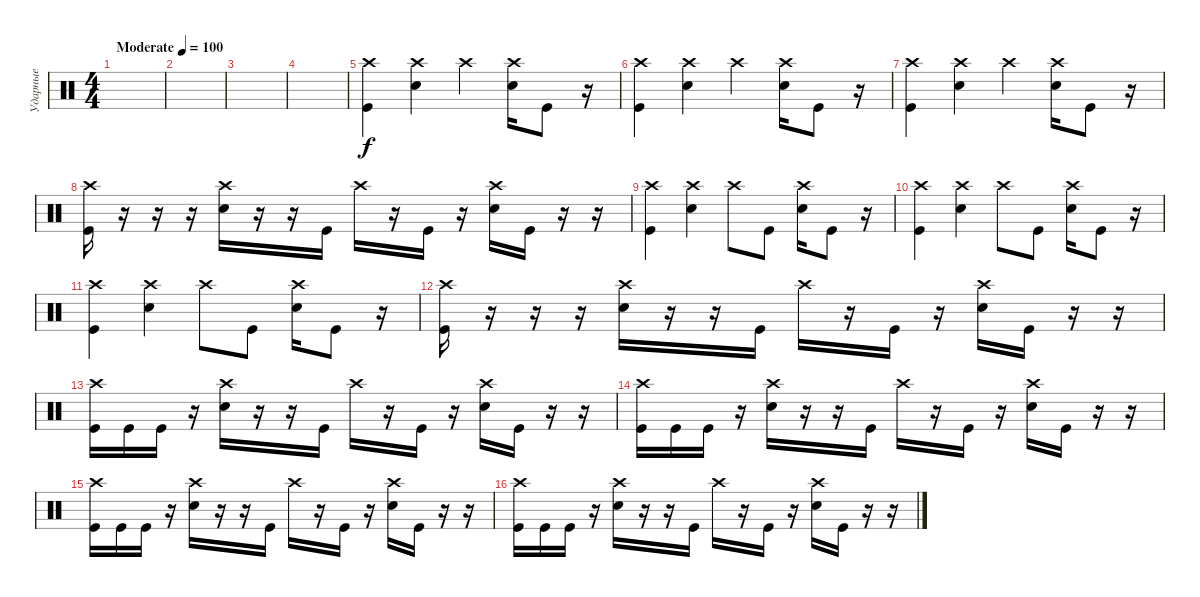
\track ("Ударные" "Ударные") {instrument percussion}
\staff {score}
\articulation defaults
\ts (4 4)
\tempo (100 "Moderate")
\clef neutral
\ks c
|
|
|
|
("Crash high (hit)" "Kick (hit)").4 ("Crash high (hit)" "Snare (hit) 2").4 "Crash high (hit)".4 ("Crash high (hit)" "Snare (hit) 2").16 "Kick (hit)".8 r.16 |
("Crash high (hit)" "Kick (hit)").4 ("Crash high (hit)" "Snare (hit) 2").4 "Crash high (hit)".4 ("Crash high (hit)" "Snare (hit) 2").16 "Kick (hit)".8 r.16 |
("Crash high (hit)" "Kick (hit)").4 ("Crash high (hit)" "Snare (hit) 2").4 "Crash high (hit)".4 ("Crash high (hit)" "Snare (hit) 2").16 "Kick (hit)".8 r.16 |
("Crash high (hit)" "Kick (hit)").16 r.16 r.16 r.16 ("Crash high (hit)" "Snare (hit) 2").16 r.16 r.16 "Kick (hit)".16 "Crash high (hit)".16 r.16 "Kick (hit)".16 r.16 ("Crash high (hit)" "Snare (hit) 2").16 "Kick (hit)".16 r.16 r.16 |
("Crash high (hit)" "Kick (hit)").4 ("Crash high (hit)" "Snare (hit) 2").4 "Crash high (hit)".8 "Kick (hit)".8 ("Crash high (hit)" "Snare (hit) 2").16 "Kick (hit)".8 r.16 |
("Crash high (hit)" "Kick (hit)").4 ("Crash high (hit)" "Snare (hit) 2").4 "Crash high (hit)".8 "Kick (hit)".8 ("Crash high (hit)" "Snare (hit) 2").16 "Kick (hit)".8 r.16 |
("Crash high (hit)" "Kick (hit)").4 ("Crash high (hit)" "Snare (hit) 2").4 "Crash high (hit)".8 "Kick (hit)".8 ("Crash high (hit)" "Snare (hit) 2").16 "Kick (hit)".8 r.16 |
("Crash high (hit)" "Kick (hit)").16 r.16 r.16 r.16 ("Crash high (hit)" "Snare (hit) 2").16 r.16 r.16 "Kick (hit)".16 "Crash high (hit)".16 r.16 "Kick (hit)".16 r.16 ("Crash high (hit)" "Snare (hit) 2").16 "Kick (hit)".16 r.16 r.16 |
("Crash high (hit)" "Kick (hit)").16 "Kick (hit)".16 "Kick (hit)".16 r.16 ("Crash high (hit)" "Snare (hit) 2").16 r.16 r.16 "Kick (hit)".16 "Crash high (hit)".16 r.16 "Kick (hit)".16 r.16 ("Crash high (hit)" "Snare (hit) 2").16 "Kick (hit)".16 r.16 r.16 |
("Crash high (hit)" "Kick (hit)").16 "Kick (hit)".16 "Kick (hit)".16 r.16 ("Crash high (hit)" "Snare (hit) 2").16 r.16 r.16 "Kick (hit)".16 "Crash high (hit)".16 r.16 "Kick (hit)".16 r.16 ("Crash high (hit)" "Snare (hit) 2").16 "Kick (hit)".16 r.16 r.16 |
("Crash high (hit)" "Kick (hit)").16 "Kick (hit)".16 "Kick (hit)".16 r.16 ("Crash high (hit)" "Snare (hit) 2").16 r.16 r.16 "Kick (hit)".16 "Crash high (hit)".16 r.16 "Kick (hit)".16 r.16 ("Crash high (hit)" "Snare (hit) 2").16 "Kick (hit)".16 r.16 r.16 |
("Crash high (hit)" "Kick (hit)").16 "Kick (hit)".16 "Kick (hit)".16 r.16 ("Crash high (hit)" "Snare (hit) 2").16 r.16 r.16 "Kick (hit)".16 "Crash high (hit)".16 r.16 "Kick (hit)".16 r.16 ("Crash high (hit)" "Snare (hit) 2").16 "Kick (hit)".16 r.16 r.16
